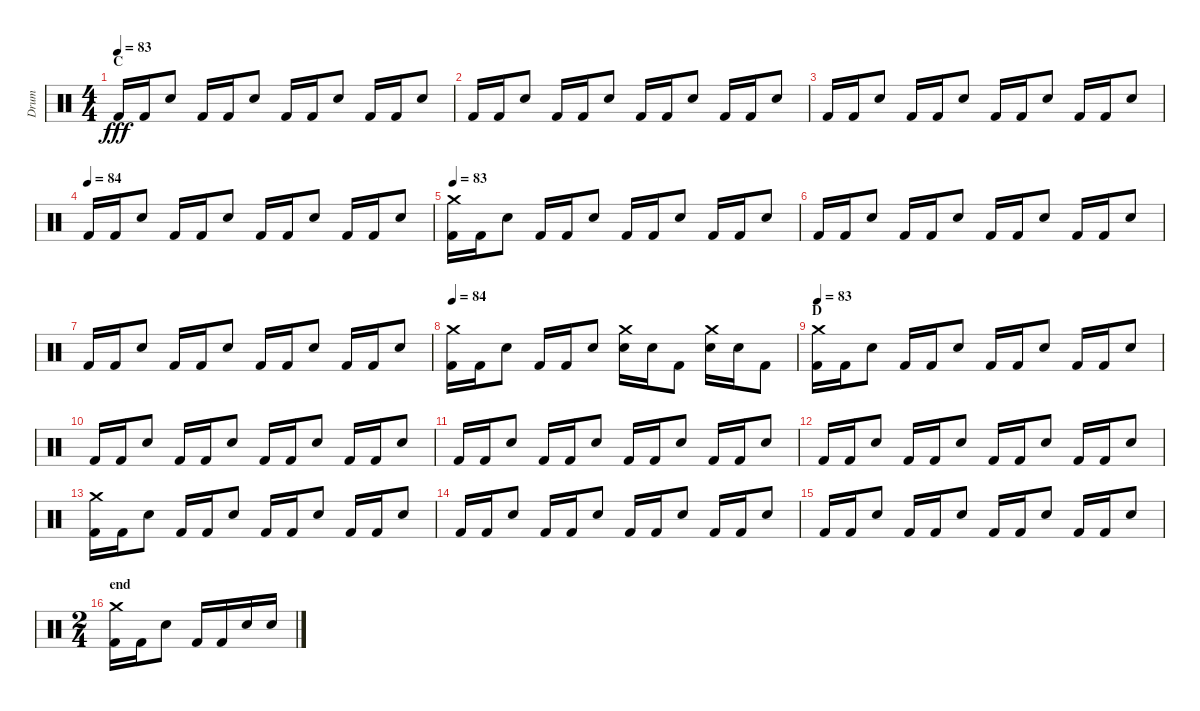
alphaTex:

\track ("Drum" "Drum") {instrument percussion}
\staff {score}
\articulation defaults
\ts (4 4)
\section ("" "C")
\tempo 83
\clef neutral
\ks c "Kick (hit) 2".16{dy fff} "Kick (hit) 2".16 "Electric Snare (hit)".8 "Kick (hit) 2".16 "Kick (hit) 2".16 "Electric Snare (hit)".8 "Kick (hit) 2".16 "Kick (hit) 2".16 "Electric Snare (hit)".8 "Kick (hit) 2".16 "Kick (hit) 2".16 "Electric Snare (hit)".8
|
"Kick (hit) 2".16 "Kick (hit) 2".16 "Electric Snare (hit)".8 "Kick (hit) 2".16 "Kick (hit) 2".16 "Electric Snare (hit)".8 "Kick (hit) 2".16 "Kick (hit) 2".16 "Electric Snare (hit)".8 "Kick (hit) 2".16 "Kick (hit) 2".16 "Electric Snare (hit)".8 |
"Kick (hit) 2".16 "Kick (hit) 2".16 "Electric Snare (hit)".8 "Kick (hit) 2".16 "Kick (hit) 2".16 "Electric Snare (hit)".8 "Kick (hit) 2".16 "Kick (hit) 2".16 "Electric Snare (hit)".8 "Kick (hit) 2".16 "Kick (hit) 2".16 "Electric Snare (hit)".8 |
\tempo (84)
"Kick (hit) 2".16 "Kick (hit) 2".16 "Electric Snare (hit)".8 "Kick (hit) 2".16 "Kick (hit) 2".16 "Electric Snare (hit)".8 "Kick (hit) 2".16 "Kick (hit) 2".16 "Electric Snare (hit)".8 "Kick (hit) 2".16 "Kick (hit) 2".16 "Electric Snare (hit)".8 |
\tempo 83
("Kick (hit) 2" "Crash medium (hit)").16 "Kick (hit) 2".16 "Electric Snare (hit)".8 "Kick (hit) 2".16 "Kick (hit) 2".16 "Electric Snare (hit)".8 "Kick (hit) 2".16 "Kick (hit) 2".16 "Electric Snare (hit)".8 "Kick (hit) 2".16 "Kick (hit) 2".16 "Electric Snare (hit)".8 |
"Kick (hit) 2".16 "Kick (hit) 2".16 "Electric Snare (hit)".8 "Kick (hit) 2".16 "Kick (hit) 2".16 "Electric Snare (hit)".8 "Kick (hit) 2".16 "Kick (hit) 2".16 "Electric Snare (hit)".8 "Kick (hit) 2".16 "Kick (hit) 2".16 "Electric Snare (hit)".8 |
"Kick (hit) 2".16 "Kick (hit) 2".16 "Electric Snare (hit)".8 "Kick (hit) 2".16 "Kick (hit) 2".16 "Electric Snare (hit)".8 "Kick (hit) 2".16 "Kick (hit) 2".16 "Electric Snare (hit)".8 "Kick (hit) 2".16 "Kick (hit) 2".16 "Electric Snare (hit)".8 |
\tempo 84
("Kick (hit) 2" "Crash medium (hit)").16 "Kick (hit) 2".16 "Electric Snare (hit)".8 "Kick (hit) 2".16 "Kick (hit) 2".16 "Electric Snare (hit)".8 ("Electric Snare (hit)" "Crash medium (hit)").16 "Electric Snare (hit)".16 "Kick (hit) 2".8 ("Electric Snare (hit)" "Crash medium (hit)").16 "Electric Snare (hit)".16 "Kick (hit) 2".8 |
\section ("" "D")
\tempo 83
("Kick (hit) 2" "Crash medium (hit)").16 "Kick (hit) 2".16 "Electric Snare (hit)".8 "Kick (hit) 2".16 "Kick (hit) 2".16 "Electric Snare (hit)".8 "Kick (hit) 2".16 "Kick (hit) 2".16 "Electric Snare (hit)".8 "Kick (hit) 2".16 "Kick (hit) 2".16 "Electric Snare (hit)".8 |
"Kick (hit) 2".16 "Kick (hit) 2".16 "Electric Snare (hit)".8 "Kick (hit) 2".16 "Kick (hit) 2".16 "Electric Snare (hit)".8 "Kick (hit) 2".16 "Kick (hit) 2".16 "Electric Snare (hit)".8 "Kick (hit) 2".16 "Kick (hit) 2".16 "Electric Snare (hit)".8 |
"Kick (hit) 2".16 "Kick (hit) 2".16 "Electric Snare (hit)".8 "Kick (hit) 2".16 "Kick (hit) 2".16 "Electric Snare (hit)".8 "Kick (hit) 2".16 "Kick (hit) 2".16 "Electric Snare (hit)".8 "Kick (hit) 2".16 "Kick (hit) 2".16 "Electric Snare (hit)".8 |
"Kick (hit) 2".16 "Kick (hit) 2".16 "Electric Snare (hit)".8 "Kick (hit) 2".16 "Kick (hit) 2".16 "Electric Snare (hit)".8 "Kick (hit) 2".16 "Kick (hit) 2".16 "Electric Snare (hit)".8 "Kick (hit) 2".16 "Kick (hit) 2".16 "Electric Snare (hit)".8 |
("Kick (hit) 2" "Crash medium (hit)").16 "Kick (hit) 2".16 "Electric Snare (hit)".8 "Kick (hit) 2".16 "Kick (hit) 2".16 "Electric Snare (hit)".8 "Kick (hit) 2".16 "Kick (hit) 2".16 "Electric Snare (hit)".8 "Kick (hit) 2".16 "Kick (hit) 2".16 "Electric Snare (hit)".8 |
"Kick (hit) 2".16 "Kick (hit) 2".16 "Electric Snare (hit)".8 "Kick (hit) 2".16 "Kick (hit) 2".16 "Electric Snare (hit)".8 "Kick (hit) 2".16 "Kick (hit) 2".16 "Electric Snare (hit)".8 "Kick (hit) 2".16 "Kick (hit) 2".16 "Electric Snare (hit)".8 |
"Kick (hit) 2".16 "Kick (hit) 2".16 "Electric Snare (hit)".8 "Kick (hit) 2".16 "Kick (hit) 2".16 "Electric Snare (hit)".8 "Kick (hit) 2".16 "Kick (hit) 2".16 "Electric Snare (hit)".8 "Kick (hit) 2".16 "Kick (hit) 2".16 "Electric Snare (hit)".8 |
\ts (2 4)
\section ("" "end")
("Kick (hit) 2" "Crash medium (hit)").16 "Kick (hit) 2".16 "Electric Snare (hit)".8 "Kick (hit) 2".16 "Kick (hit) 2".16 "Electric Snare (hit)".16 "Electric Snare (hit)".16
